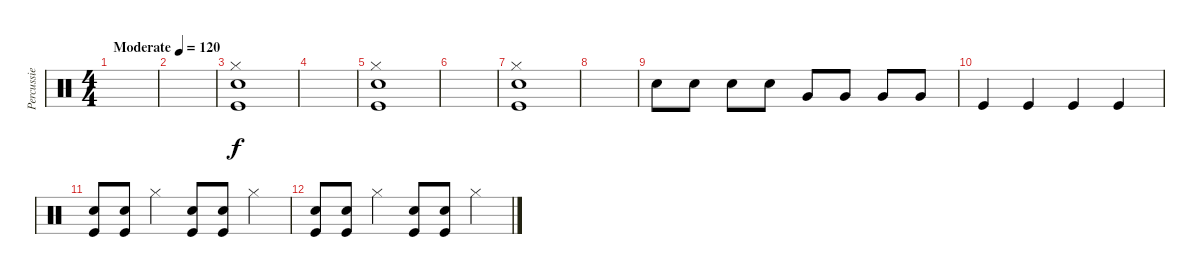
\track ("Percussie" "Percussie") {instrument percussion}
\staff {score}
\articulation defaults
\ts (4 4)
\tempo (120 "Moderate")
\clef neutral
\ks c
|
|
("Hi-Hat (closed)" "Snare (hit) 2" "Kick (hit)").1 |
|
("Hi-Hat (closed)" "Snare (hit) 2" "Kick (hit)").1 |
|
("Hi-Hat (closed)" "Snare (hit) 2" "Kick (hit)").1 |
|
"Snare (hit) 2".8 "Snare (hit) 2".8 "Snare (hit) 2".8 "Snare (hit) 2".8 "Very Low Tom (hit)".8 "Very Low Tom (hit)".8 "Very Low Tom (hit)".8 "Very Low Tom (hit)".8 |
"Kick (hit)".4 "Kick (hit)".4 "Kick (hit)".4 "Kick (hit)".4 |
("Snare (hit) 2" "Kick (hit)").8 ("Snare (hit) 2" "Kick (hit)").8 "Hi-Hat (closed)".4 ("Snare (hit) 2" "Kick (hit)").8 ("Snare (hit) 2" "Kick (hit)").8 "Hi-Hat (closed)".4 |
("Snare (hit) 2" "Kick (hit)").8 ("Snare (hit) 2" "Kick (hit)").8 "Hi-Hat (closed)".4 ("Snare (hit) 2" "Kick (hit)").8 ("Snare (hit) 2" "Kick (hit)").8 "Hi-Hat (closed)".4
